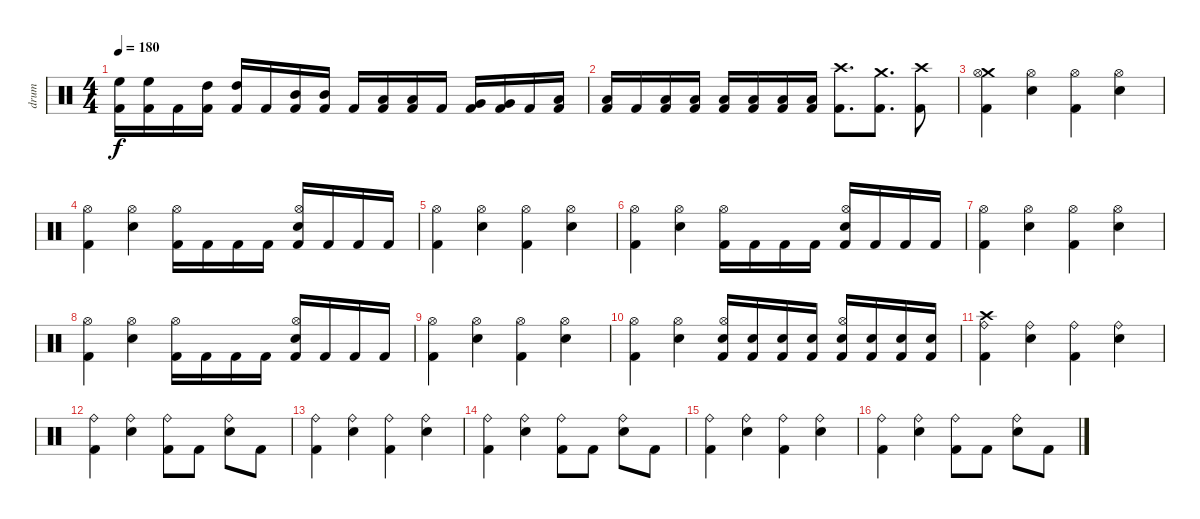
\track ("drum" "drum") {instrument percussion}
\staff {score}
\articulation defaults
\ts (4 4)
\tempo 180
\clef neutral
\ks c
("High Floor Tom (hit)" "Kick (hit) 2").16{dy f} ("High Floor Tom (hit)" "Kick (hit) 2").16 "Kick (hit) 2".16 ("High Tom (hit)" "Kick (hit) 2").16 ("High Tom (hit)" "Kick (hit) 2").16 "Kick (hit) 2".16 ("Mid Tom (hit)" "Kick (hit) 2").16 ("Mid Tom (hit)" "Kick (hit) 2").16 "Kick (hit) 2".16 ("Low Tom (hit)" "Kick (hit) 2").16 ("Low Tom (hit)" "Kick (hit) 2").16 "Kick (hit) 2".16 ("Very Low Tom (hit)" "Kick (hit) 2").16 ("Very Low Tom (hit)" "Kick (hit) 2").16 "Kick (hit) 2".16 ("Low Floor Tom (hit)" "Kick (hit) 2").16 |
("Low Floor Tom (hit)" "Kick (hit) 2").16 "Kick (hit) 2".16 ("Low Floor Tom (hit)" "Kick (hit) 2").16 ("Low Floor Tom (hit)" "Kick (hit) 2").16 ("Low Floor Tom (hit)" "Kick (hit) 2").16 ("Low Floor Tom (hit)" "Kick (hit) 2").16 ("Low Floor Tom (hit)" "Kick (hit) 2").16 ("Low Floor Tom (hit)" "Kick (hit) 2").16 ("Crash high (hit)" "Kick (hit) 2").8{d} ("Crash medium (hit)" "Kick (hit) 2").8{d} ("Crash high (hit)" "Kick (hit) 2").8 |
("Crash medium (hit)" "Hi-Hat (open)" "Kick (hit) 2").4 ("Hi-Hat (open)" "Electric Snare (hit)").4 ("Hi-Hat (open)" "Kick (hit) 2").4 ("Hi-Hat (open)" "Electric Snare (hit)").4 |
("Hi-Hat (open)" "Kick (hit) 2").4 ("Hi-Hat (open)" "Electric Snare (hit)").4 ("Hi-Hat (open)" "Kick (hit) 2").16 "Kick (hit) 2".16 "Kick (hit) 2".16 "Kick (hit) 2".16 ("Hi-Hat (open)" "Electric Snare (hit)" "Kick (hit) 2").16 "Kick (hit) 2".16 "Kick (hit) 2".16 "Kick (hit) 2".16 |
("Hi-Hat (open)" "Kick (hit) 2").4 ("Hi-Hat (open)" "Electric Snare (hit)").4 ("Hi-Hat (open)" "Kick (hit) 2").4 ("Hi-Hat (open)" "Electric Snare (hit)").4 |
("Hi-Hat (open)" "Kick (hit) 2").4 ("Hi-Hat (open)" "Electric Snare (hit)").4 ("Hi-Hat (open)" "Kick (hit) 2").16 "Kick (hit) 2".16 "Kick (hit) 2".16 "Kick (hit) 2".16 ("Hi-Hat (open)" "Electric Snare (hit)" "Kick (hit) 2").16 "Kick (hit) 2".16 "Kick (hit) 2".16 "Kick (hit) 2".16 |
("Hi-Hat (open)" "Kick (hit) 2").4 ("Hi-Hat (open)" "Electric Snare (hit)").4 ("Hi-Hat (open)" "Kick (hit) 2").4 ("Hi-Hat (open)" "Electric Snare (hit)").4 |
("Hi-Hat (open)" "Kick (hit) 2").4 ("Hi-Hat (open)" "Electric Snare (hit)").4 ("Hi-Hat (open)" "Kick (hit) 2").16 "Kick (hit) 2".16 "Kick (hit) 2".16 "Kick (hit) 2".16 ("Hi-Hat (open)" "Electric Snare (hit)" "Kick (hit) 2").16 "Kick (hit) 2".16 "Kick (hit) 2".16 "Kick (hit) 2".16 |
("Hi-Hat (open)" "Kick (hit) 2").4 ("Hi-Hat (open)" "Electric Snare (hit)").4 ("Hi-Hat (open)" "Kick (hit) 2").4 ("Hi-Hat (open)" "Electric Snare (hit)").4 |
("Hi-Hat (open)" "Kick (hit) 2").4 ("Hi-Hat (open)" "Electric Snare (hit)").4 ("Hi-Hat (open)" "Electric Snare (hit)" "Kick (hit) 2").16 ("Electric Snare (hit)" "Kick (hit) 2").16 ("Electric Snare (hit)" "Kick (hit) 2").16 ("Electric Snare (hit)" "Kick (hit) 2").16 ("Hi-Hat (open)" "Electric Snare (hit)" "Kick (hit) 2").16 ("Electric Snare (hit)" "Kick (hit) 2").16 ("Electric Snare (hit)" "Kick (hit) 2").16 ("Electric Snare (hit)" "Kick (hit) 2").16 |
("Crash high (hit)" "Ride (bell)" "Kick (hit) 2").4 ("Ride (bell)" "Electric Snare (hit)").4 ("Ride (bell)" "Kick (hit) 2").4 ("Ride (bell)" "Electric Snare (hit)").4 |
("Ride (bell)" "Kick (hit) 2").4 ("Ride (bell)" "Electric Snare (hit)").4 ("Ride (bell)" "Kick (hit) 2").8 "Kick (hit) 2".8 ("Ride (bell)" "Electric Snare (hit)").8 "Kick (hit) 2".8 |
("Ride (bell)" "Kick (hit) 2").4 ("Ride (bell)" "Electric Snare (hit)").4 ("Ride (bell)" "Kick (hit) 2").4 ("Ride (bell)" "Electric Snare (hit)").4 |
("Ride (bell)" "Kick (hit) 2").4 ("Ride (bell)" "Electric Snare (hit)").4 ("Ride (bell)" "Kick (hit) 2").8 "Kick (hit) 2".8 ("Ride (bell)" "Electric Snare (hit)").8 "Kick (hit) 2".8 |
("Ride (bell)" "Kick (hit) 2").4 ("Ride (bell)" "Electric Snare (hit)").4 ("Ride (bell)" "Kick (hit) 2").4 ("Ride (bell)" "Electric Snare (hit)").4 |
("Ride (bell)" "Kick (hit) 2").4 ("Ride (bell)" "Electric Snare (hit)").4 ("Ride (bell)" "Kick (hit) 2").8 "Kick (hit) 2".8 ("Ride (bell)" "Electric Snare (hit)").8 "Kick (hit) 2".8
